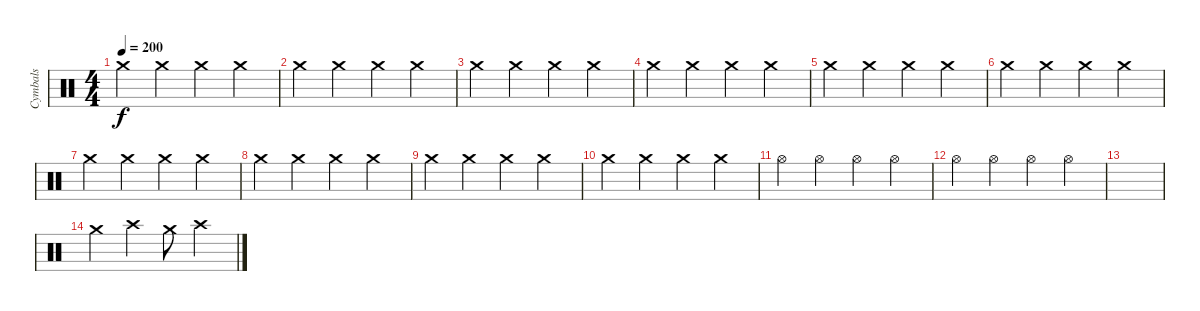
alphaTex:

\track ("Cymbals" "Cymbals") {instrument percussion}
\staff {score}
\articulation defaults
\ts (4 4)
\tempo 200
\clef neutral
\ks c "Crash medium (hit)".4{dy f} "Crash medium (hit)".4 "Crash medium (hit)".4 "Crash medium (hit)".4
|
"Crash medium (hit)".4 "Crash medium (hit)".4 "Crash medium (hit)".4 "Crash medium (hit)".4 |
"Crash medium (hit)".4 "Crash medium (hit)".4 "Crash medium (hit)".4 "Crash medium (hit)".4 |
"Crash medium (hit)".4 "Crash medium (hit)".4 "Crash medium (hit)".4 "Crash medium (hit)".4 |
"Crash medium (hit)".4 "Crash medium (hit)".4 "Crash medium (hit)".4 "Crash medium (hit)".4 |
"Crash medium (hit)".4 "Crash medium (hit)".4 "Crash medium (hit)".4 "Crash medium (hit)".4 |
"Crash medium (hit)".4 "Crash medium (hit)".4 "Crash medium (hit)".4 "Crash medium (hit)".4 |
"Crash medium (hit)".4 "Crash medium (hit)".4 "Crash medium (hit)".4 "Crash medium (hit)".4 |
"Crash medium (hit)".4 "Crash medium (hit)".4 "Crash medium (hit)".4 "Crash medium (hit)".4 |
"Crash medium (hit)".4 "Crash medium (hit)".4 "Crash medium (hit)".4 "Crash medium (hit)".4 |
"Hi-Hat (open)".4 "Hi-Hat (open)".4 "Hi-Hat (open)".4 "Hi-Hat (open)".4 |
"Hi-Hat (open)".4 "Hi-Hat (open)".4 "Hi-Hat (open)".4 "Hi-Hat (open)".4 |
|
"Crash medium (hit)".4 "Crash high (hit)".4 "Crash medium (hit)".8 "Crash high (hit)".4
